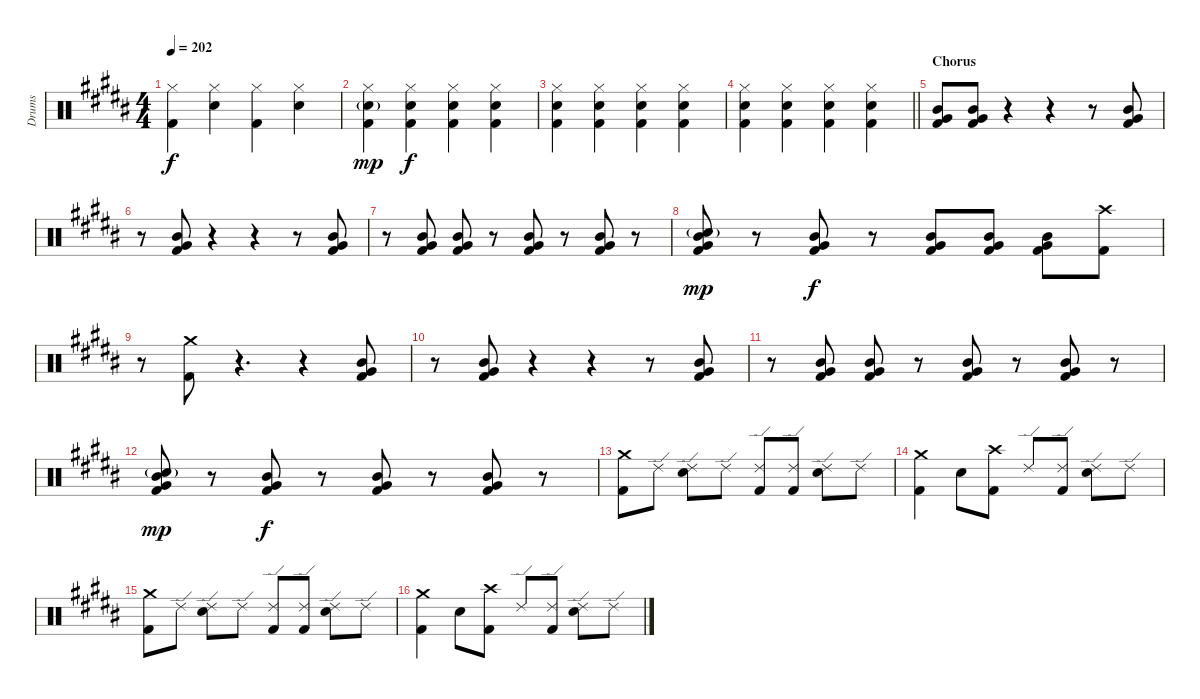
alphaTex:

\track ("Drums" "Drums") {instrument percussion}
\staff {score}
\articulation defaults
\ts (4 4)
\tempo 202
\clef neutral
\ks g#minor
("Hi-Hat (closed)" "Kick (hit) 2").4{dy f} ("Hi-Hat (closed)" "Electric Snare (hit)").4 ("Hi-Hat (closed)" "Kick (hit) 2").4 ("Hi-Hat (closed)" "Electric Snare (hit)").4 |
("Hi-Hat (closed)" "Electric Snare (hit)"{g} "Kick (hit) 2").4{dy mp} ("Hi-Hat (closed)" "Electric Snare (hit)" "Kick (hit) 2").4{dy f} ("Hi-Hat (closed)" "Electric Snare (hit)" "Kick (hit) 2").4 ("Hi-Hat (closed)" "Electric Snare (hit)" "Kick (hit) 2").4 |
("Hi-Hat (closed)" "Electric Snare (hit)" "Kick (hit) 2").4 ("Hi-Hat (closed)" "Electric Snare (hit)" "Kick (hit) 2").4 ("Hi-Hat (closed)" "Electric Snare (hit)" "Kick (hit) 2").4 ("Hi-Hat (closed)" "Electric Snare (hit)" "Kick (hit) 2").4 |
\barLineRight lightlight
("Hi-Hat (closed)" "Electric Snare (hit)" "Kick (hit) 2").4 ("Hi-Hat (closed)" "Electric Snare (hit)" "Kick (hit) 2").4 ("Hi-Hat (closed)" "Electric Snare (hit)" "Kick (hit) 2").4 ("Hi-Hat (closed)" "Electric Snare (hit)" "Kick (hit) 2").4 |
\section ("" "Chorus")
("Mid Tom (hit)" "Very Low Tom (hit)" "Kick (hit) 2").8 ("Mid Tom (hit)" "Very Low Tom (hit)" "Kick (hit) 2").8 r.4 r.4 r.8 ("Mid Tom (hit)" "Very Low Tom (hit)" "Kick (hit) 2").8 |
r.8 ("Mid Tom (hit)" "Very Low Tom (hit)" "Kick (hit) 2").8 r.4 r.4 r.8 ("Mid Tom (hit)" "Very Low Tom (hit)" "Kick (hit) 2").8 |
r.8 ("Mid Tom (hit)" "Very Low Tom (hit)" "Kick (hit) 2").8 ("Mid Tom (hit)" "Very Low Tom (hit)" "Kick (hit) 2").8 r.8 ("Mid Tom (hit)" "Very Low Tom (hit)" "Kick (hit) 2").8 r.8 ("Mid Tom (hit)" "Very Low Tom (hit)" "Kick (hit) 2").8 r.8 |
("Electric Snare (hit)"{g} "Mid Tom (hit)" "Very Low Tom (hit)" "Kick (hit) 2").8{dy mp} r.8 ("Mid Tom (hit)" "Very Low Tom (hit)" "Kick (hit) 2").8{dy f} r.8 ("Mid Tom (hit)" "Very Low Tom (hit)" "Kick (hit) 2").8 ("Mid Tom (hit)" "Very Low Tom (hit)" "Kick (hit) 2").8 ("Mid Tom (hit)" "Very Low Tom (hit)" "Kick (hit) 2").8 ("Crash high (hit)" "Kick (hit) 2").8 |
r.8 ("Crash medium (hit)" "Kick (hit) 2").8 r.4{d} r.4 ("Mid Tom (hit)" "Very Low Tom (hit)" "Kick (hit) 2").8 |
r.8 ("Mid Tom (hit)" "Very Low Tom (hit)" "Kick (hit) 2").8 r.4 r.4 r.8 ("Mid Tom (hit)" "Very Low Tom (hit)" "Kick (hit) 2").8 |
r.8 ("Mid Tom (hit)" "Very Low Tom (hit)" "Kick (hit) 2").8 ("Mid Tom (hit)" "Very Low Tom (hit)" "Kick (hit) 2").8 r.8 ("Mid Tom (hit)" "Very Low Tom (hit)" "Kick (hit) 2").8 r.8 ("Mid Tom (hit)" "Very Low Tom (hit)" "Kick (hit) 2").8 r.8 |
("Electric Snare (hit)"{g} "Mid Tom (hit)" "Very Low Tom (hit)" "Kick (hit) 2").8{dy mp} r.8 ("Mid Tom (hit)" "Very Low Tom (hit)" "Kick (hit) 2").8{dy f} r.8 ("Mid Tom (hit)" "Very Low Tom (hit)" "Kick (hit) 2").8 r.8 ("Mid Tom (hit)" "Very Low Tom (hit)" "Kick (hit) 2").8 r.8 |
("Crash medium (hit)" "Kick (hit) 2").8 "Ride (edge) 2".8 ("Ride (edge) 2" "Electric Snare (hit)").8 "Ride (edge) 2".8 ("Ride (edge) 2" "Kick (hit) 2").8 ("Ride (edge) 2" "Kick (hit) 2").8 ("Ride (edge) 2" "Electric Snare (hit)").8 "Ride (edge) 2".8 |
("Crash medium (hit)" "Kick (hit) 2").4 "Electric Snare (hit)".8 ("Crash high (hit)" "Kick (hit) 2").8 "Ride (edge) 2".8 ("Ride (edge) 2" "Kick (hit) 2").8 ("Ride (edge) 2" "Electric Snare (hit)").8 "Ride (edge) 2".8 |
("Crash medium (hit)" "Kick (hit) 2").8 "Ride (edge) 2".8 ("Ride (edge) 2" "Electric Snare (hit)").8 "Ride (edge) 2".8 ("Ride (edge) 2" "Kick (hit) 2").8 ("Ride (edge) 2" "Kick (hit) 2").8 ("Ride (edge) 2" "Electric Snare (hit)").8 "Ride (edge) 2".8 |
("Crash medium (hit)" "Kick (hit) 2").4 "Electric Snare (hit)".8 ("Crash high (hit)" "Kick (hit) 2").8 "Ride (edge) 2".8 ("Ride (edge) 2" "Kick (hit) 2").8 ("Ride (edge) 2" "Electric Snare (hit)").8 "Ride (edge) 2".8
